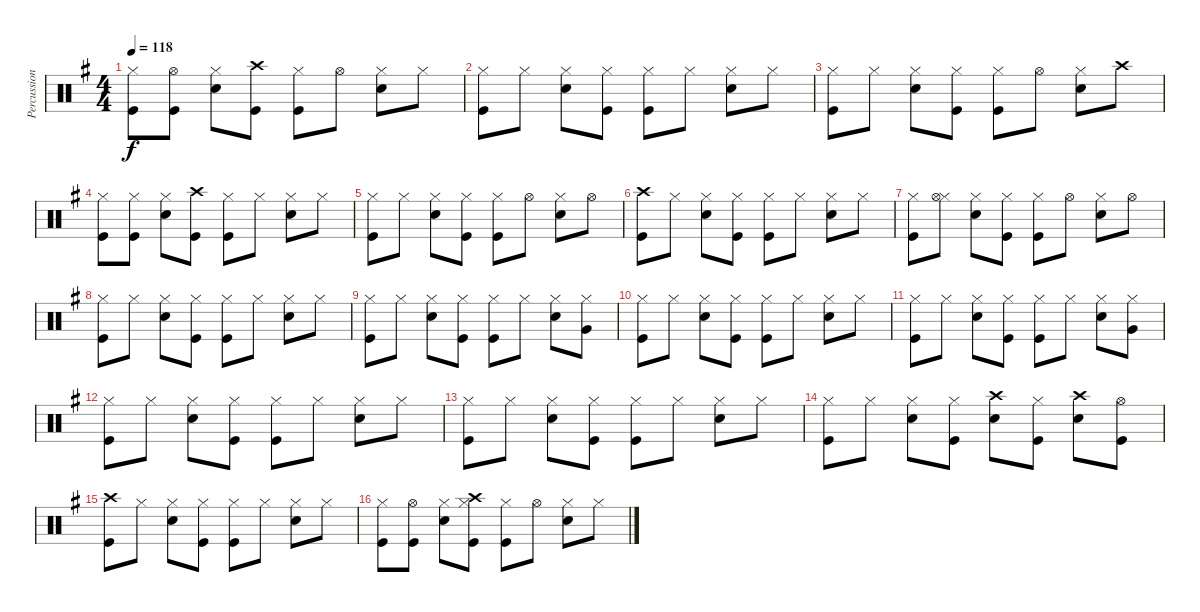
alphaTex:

\track ("Percussion" "Percussion") {instrument percussion}
\staff {score}
\articulation defaults
\ts (4 4)
\tempo 118
\clef neutral
\ks g
("Hi-Hat (closed)" "Kick (hit)").8{dy f} ("Hi-Hat (open)" "Kick (hit)").8 ("Hi-Hat (closed)" "Electric Snare (hit)").8 ("Crash high (hit)" "Kick (hit)").8 ("Hi-Hat (closed)" "Kick (hit)").8 "Hi-Hat (open)".8 ("Hi-Hat (closed)" "Electric Snare (hit)").8 "Hi-Hat (closed)".8 |
("Hi-Hat (closed)" "Kick (hit)").8 "Hi-Hat (closed)".8 ("Hi-Hat (closed)" "Electric Snare (hit)").8 ("Hi-Hat (closed)" "Kick (hit)").8 ("Hi-Hat (closed)" "Kick (hit)").8 "Hi-Hat (closed)".8 ("Hi-Hat (closed)" "Electric Snare (hit)").8 "Hi-Hat (closed)".8 |
("Hi-Hat (closed)" "Kick (hit)").8 "Hi-Hat (closed)".8 ("Hi-Hat (closed)" "Electric Snare (hit)").8 ("Hi-Hat (closed)" "Kick (hit)").8 ("Hi-Hat (closed)" "Kick (hit)").8 "Hi-Hat (open)".8 ("Hi-Hat (closed)" "Electric Snare (hit)").8 "Crash high (hit)".8 |
("Hi-Hat (closed)" "Kick (hit)").8 ("Hi-Hat (closed)" "Kick (hit)").8 ("Hi-Hat (closed)" "Electric Snare (hit)").8 ("Crash high (hit)" "Kick (hit)").8 ("Hi-Hat (closed)" "Kick (hit)").8 "Hi-Hat (closed)".8 ("Hi-Hat (closed)" "Electric Snare (hit)").8 "Hi-Hat (closed)".8 |
("Hi-Hat (closed)" "Kick (hit)").8 "Hi-Hat (closed)".8 ("Hi-Hat (closed)" "Electric Snare (hit)").8 ("Hi-Hat (closed)" "Kick (hit)").8 ("Hi-Hat (closed)" "Kick (hit)").8 "Hi-Hat (open)".8 ("Hi-Hat (closed)" "Electric Snare (hit)").8 "Hi-Hat (open)".8 |
("Crash high (hit)" "Kick (hit)").8 "Hi-Hat (closed)".8 ("Hi-Hat (closed)" "Electric Snare (hit)").8 ("Hi-Hat (closed)" "Kick (hit)").8 ("Hi-Hat (closed)" "Kick (hit)").8 "Hi-Hat (closed)".8 ("Hi-Hat (closed)" "Electric Snare (hit)").8 "Hi-Hat (closed)".8 |
("Hi-Hat (closed)" "Kick (hit)").8 ("Hi-Hat (closed)" "Hi-Hat (open)").8 ("Hi-Hat (closed)" "Electric Snare (hit)").8 ("Hi-Hat (closed)" "Kick (hit)").8 ("Hi-Hat (closed)" "Kick (hit)").8 "Hi-Hat (open)".8 ("Hi-Hat (closed)" "Electric Snare (hit)").8 "Hi-Hat (open)".8 |
("Hi-Hat (closed)" "Kick (hit)").8 "Hi-Hat (closed)".8 ("Hi-Hat (closed)" "Electric Snare (hit)").8 ("Hi-Hat (closed)" "Kick (hit)").8 ("Hi-Hat (closed)" "Kick (hit)").8 "Hi-Hat (closed)".8 ("Hi-Hat (closed)" "Electric Snare (hit)").8 "Hi-Hat (closed)".8 |
("Hi-Hat (closed)" "Kick (hit)").8 "Hi-Hat (closed)".8 ("Hi-Hat (closed)" "Electric Snare (hit)").8 ("Hi-Hat (closed)" "Kick (hit)").8 ("Hi-Hat (closed)" "Kick (hit)").8 "Hi-Hat (closed)".8 ("Hi-Hat (closed)" "Electric Snare (hit)").8 ("Hi-Hat (closed)" "Very Low Tom (hit)").8 |
("Hi-Hat (closed)" "Kick (hit)").8 "Hi-Hat (closed)".8 ("Hi-Hat (closed)" "Electric Snare (hit)").8 ("Hi-Hat (closed)" "Kick (hit)").8 ("Hi-Hat (closed)" "Kick (hit)").8 "Hi-Hat (closed)".8 ("Hi-Hat (closed)" "Electric Snare (hit)").8 "Hi-Hat (closed)".8 |
("Hi-Hat (closed)" "Kick (hit)").8 "Hi-Hat (closed)".8 ("Hi-Hat (closed)" "Electric Snare (hit)").8 ("Hi-Hat (closed)" "Kick (hit)").8 ("Hi-Hat (closed)" "Kick (hit)").8 "Hi-Hat (closed)".8 ("Hi-Hat (closed)" "Electric Snare (hit)").8 ("Hi-Hat (closed)" "Very Low Tom (hit)").8 |
("Hi-Hat (closed)" "Kick (hit)").8 "Hi-Hat (closed)".8 ("Hi-Hat (closed)" "Electric Snare (hit)").8 ("Hi-Hat (closed)" "Kick (hit)").8 ("Hi-Hat (closed)" "Kick (hit)").8 "Hi-Hat (closed)".8 ("Hi-Hat (closed)" "Electric Snare (hit)").8 "Hi-Hat (closed)".8 |
("Hi-Hat (closed)" "Kick (hit)").8 "Hi-Hat (closed)".8 ("Hi-Hat (closed)" "Electric Snare (hit)").8 ("Hi-Hat (closed)" "Kick (hit)").8 ("Hi-Hat (closed)" "Kick (hit)").8 "Hi-Hat (closed)".8 ("Hi-Hat (closed)" "Electric Snare (hit)").8 "Hi-Hat (closed)".8 |
("Hi-Hat (closed)" "Kick (hit)").8 "Hi-Hat (closed)".8 ("Hi-Hat (closed)" "Electric Snare (hit)").8 ("Hi-Hat (closed)" "Kick (hit)").8 ("Crash high (hit)" "Electric Snare (hit)").8 ("Hi-Hat (closed)" "Kick (hit)").8 ("Crash high (hit)" "Electric Snare (hit)").8 ("Hi-Hat (open)" "Kick (hit)").8 |
("Crash high (hit)" "Kick (hit)").8 "Hi-Hat (closed)".8 ("Hi-Hat (closed)" "Electric Snare (hit)").8 ("Hi-Hat (closed)" "Kick (hit)").8 ("Hi-Hat (closed)" "Kick (hit)").8 "Hi-Hat (closed)".8 ("Hi-Hat (closed)" "Electric Snare (hit)").8 "Hi-Hat (closed)".8 |
("Hi-Hat (closed)" "Kick (hit)").8 ("Hi-Hat (open)" "Kick (hit)").8 ("Hi-Hat (closed)" "Electric Snare (hit)").8 ("Hi-Hat (closed)" "Crash high (hit)" "Kick (hit)").8 ("Hi-Hat (closed)" "Kick (hit)").8 "Hi-Hat (open)".8 ("Hi-Hat (closed)" "Electric Snare (hit)").8 "Hi-Hat (closed)".8
